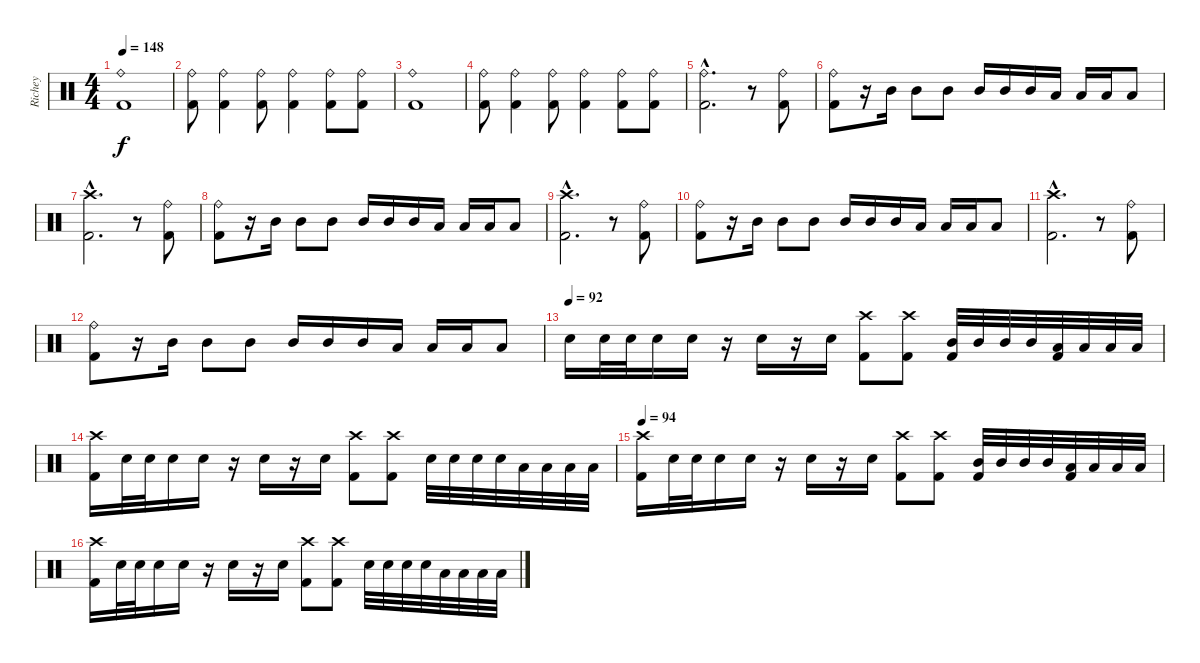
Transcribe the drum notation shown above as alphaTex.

\track ("Richey" "Richey") {instrument percussion}
\staff {score}
\articulation defaults
\ts (4 4)
\tempo 148
\clef neutral
\ks c
("Ride (bell)" "Kick (hit) 2").1{dy f} |
("Ride (bell)" "Kick (hit) 2").8 ("Ride (bell)" "Kick (hit) 2").4 ("Ride (bell)" "Kick (hit) 2").8 ("Ride (bell)" "Kick (hit) 2").4 ("Ride (bell)" "Kick (hit) 2").8 ("Ride (bell)" "Kick (hit) 2").8 |
("Ride (bell)" "Kick (hit) 2").1 |
("Ride (bell)" "Kick (hit) 2").8 ("Ride (bell)" "Kick (hit) 2").4 ("Ride (bell)" "Kick (hit) 2").8 ("Ride (bell)" "Kick (hit) 2").4 ("Ride (bell)" "Kick (hit) 2").8 ("Ride (bell)" "Kick (hit) 2").8 |
("Ride (bell)"{hac} "Kick (hit) 2"{hac}).2{d} r.8 ("Ride (bell)" "Kick (hit) 2").8 |
("Ride (bell)" "Kick (hit) 2").8 r.16 "Mid Tom (hit)".16 "Mid Tom (hit)".8 "Mid Tom (hit)".8 "Mid Tom (hit)".16 "Mid Tom (hit)".16 "Mid Tom (hit)".16 "Low Tom (hit)".16 "Low Tom (hit)".16 "Low Tom (hit)".16 "Low Tom (hit)".8 |
("Crash high (hit)"{hac} "Kick (hit) 2"{hac}).2{d} r.8 ("Ride (bell)" "Kick (hit) 2").8 |
("Ride (bell)" "Kick (hit) 2").8 r.16 "Mid Tom (hit)".16 "Mid Tom (hit)".8 "Mid Tom (hit)".8 "Mid Tom (hit)".16 "Mid Tom (hit)".16 "Mid Tom (hit)".16 "Low Tom (hit)".16 "Low Tom (hit)".16 "Low Tom (hit)".16 "Low Tom (hit)".8 |
("Crash high (hit)"{hac} "Kick (hit) 2"{hac}).2{d} r.8 ("Ride (bell)" "Kick (hit) 2").8 |
("Ride (bell)" "Kick (hit) 2").8 r.16 "Mid Tom (hit)".16 "Mid Tom (hit)".8 "Mid Tom (hit)".8 "Mid Tom (hit)".16 "Mid Tom (hit)".16 "Mid Tom (hit)".16 "Low Tom (hit)".16 "Low Tom (hit)".16 "Low Tom (hit)".16 "Low Tom (hit)".8 |
("Crash high (hit)"{hac} "Kick (hit) 2"{hac}).2{d} r.8 ("Ride (bell)" "Kick (hit) 2").8 |
("Ride (bell)" "Kick (hit) 2").8 r.16 "Mid Tom (hit)".16 "Mid Tom (hit)".8 "Mid Tom (hit)".8 "Mid Tom (hit)".16 "Mid Tom (hit)".16 "Mid Tom (hit)".16 "Low Tom (hit)".16 "Low Tom (hit)".16 "Low Tom (hit)".16 "Low Tom (hit)".8 |
\tempo (92)
"Snare (hit) 2".16 "Snare (hit) 2".32 "Snare (hit) 2".32 "Snare (hit) 2".16 "Snare (hit) 2".16 r.16 "Snare (hit) 2".16 r.16 "Snare (hit) 2".16 ("Crash high (hit)" "Kick (hit) 2").8 ("Crash high (hit)" "Kick (hit) 2").8 ("Mid Tom (hit)" "Kick (hit) 2").32 "Mid Tom (hit)".32 "Mid Tom (hit)".32 "Mid Tom (hit)".32 ("Low Tom (hit)" "Kick (hit) 2").32 "Low Tom (hit)".32 "Low Tom (hit)".32 "Low Tom (hit)".32 |
("Crash high (hit)" "Kick (hit) 2").16 "Snare (hit) 2".32 "Snare (hit) 2".32 "Snare (hit) 2".16 "Snare (hit) 2".16 r.16 "Snare (hit) 2".16 r.16 "Snare (hit) 2".16 ("Crash high (hit)" "Kick (hit) 2").8 ("Crash high (hit)" "Kick (hit) 2").8 "Snare (hit) 2".32 "Snare (hit) 2".32 "Snare (hit) 2".32 "Snare (hit) 2".32 "Low Tom (hit)".32 "Low Tom (hit)".32 "Low Tom (hit)".32 "Low Tom (hit)".32 |
\tempo 94
("Crash high (hit)" "Kick (hit) 2").16 "Snare (hit) 2".32 "Snare (hit) 2".32 "Snare (hit) 2".16 "Snare (hit) 2".16 r.16 "Snare (hit) 2".16 r.16 "Snare (hit) 2".16 ("Crash high (hit)" "Kick (hit) 2").8 ("Crash high (hit)" "Kick (hit) 2").8 ("Mid Tom (hit)" "Kick (hit) 2").32 "Mid Tom (hit)".32 "Mid Tom (hit)".32 "Mid Tom (hit)".32 ("Low Tom (hit)" "Kick (hit) 2").32 "Low Tom (hit)".32 "Low Tom (hit)".32 "Low Tom (hit)".32 |
("Crash high (hit)" "Kick (hit) 2").16 "Snare (hit) 2".32 "Snare (hit) 2".32 "Snare (hit) 2".16 "Snare (hit) 2".16 r.16 "Snare (hit) 2".16 r.16 "Snare (hit) 2".16 ("Crash high (hit)" "Kick (hit) 2").8 ("Crash high (hit)" "Kick (hit) 2").8 "Snare (hit) 2".32 "Snare (hit) 2".32 "Snare (hit) 2".32 "Snare (hit) 2".32 "Low Tom (hit)".32 "Low Tom (hit)".32 "Low Tom (hit)".32 "Low Tom (hit)".32
